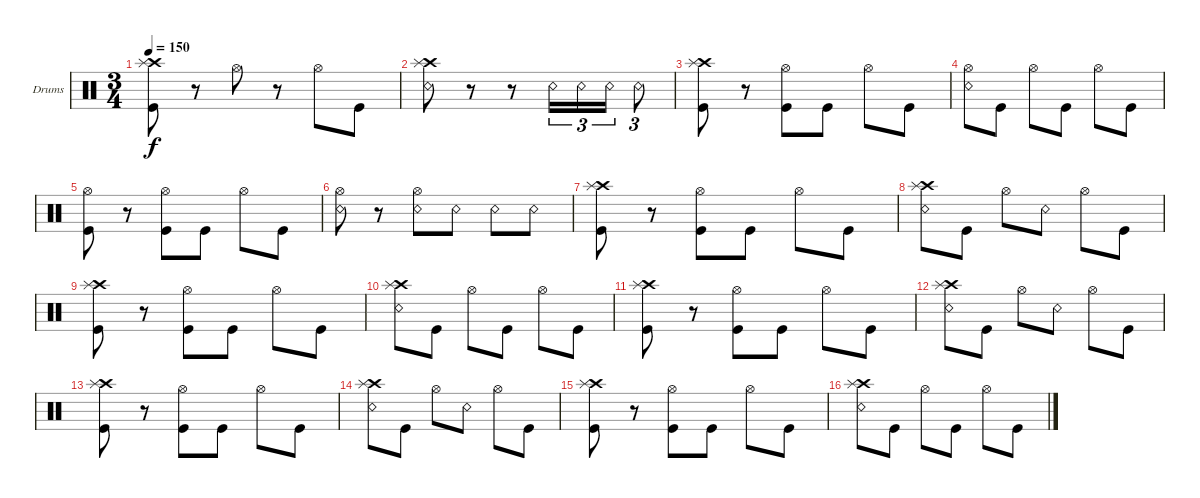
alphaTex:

\defaultSystemsLayout 4
\bracketExtendMode groupsimilarinstruments
\firstSystemTrackNameOrientation horizontal
\otherSystemsTrackNameOrientation horizontal
\track ("Scott" "Drums") {mute instrument percussion}
\staff {score}
\articulation defaults
\ts (3 4)
\tempo 150
\clef neutral
\scale
0.333333
\ks c
("Kick (hit)" "Crash high (hit)" "Splash (hit)").8{dy f} r.8 "Hi-Hat (open)".8 r.8 "Hi-Hat (open)".8 "Kick (hit)".8 |
\scale
0.333333 ("Snare (rim shot)" "Crash high (hit)" "Splash (hit)").8 r.8 r.8 "Snare (rim shot)".16{tu (3 2)} "Snare (rim shot)".16{tu (3 2)} "Snare (rim shot)".16{tu (3 2)} "Snare (rim shot)".8{tu (3 2)} |
\scale
0.333333 ("Kick (hit)" "Crash high (hit)" "Splash (hit)").8 r.8 ("Kick (hit)" "Hi-Hat (open)").8 "Kick (hit)".8 "Hi-Hat (open)".8 "Kick (hit)".8 |
\scale
0.333333 ("Snare (rim shot)" "Hi-Hat (open)").8 "Kick (hit)".8 "Hi-Hat (open)".8 "Kick (hit)".8 "Hi-Hat (open)".8 "Kick (hit)".8 |
\scale
0.333333 ("Kick (hit)" "Hi-Hat (open)").8 r.8 ("Kick (hit)" "Hi-Hat (open)").8 "Kick (hit)".8 "Hi-Hat (open)".8 "Kick (hit)".8 |
\scale
0.333333 ("Snare (rim shot)" "Hi-Hat (open)").8 r.8 ("Snare (rim shot)" "Hi-Hat (open)").8 "Snare (rim shot)".8 "Snare (rim shot)".8 "Snare (rim shot)".8 |
\scale
0.333333 ("Kick (hit)" "Crash high (hit)" "Splash (hit)").8 r.8 ("Kick (hit)" "Hi-Hat (open)").8 "Kick (hit)".8 "Hi-Hat (open)".8 "Kick (hit)".8 |
\scale
0.333333 ("Snare (rim shot)" "Crash high (hit)" "Splash (hit)").8 "Kick (hit)".8 "Hi-Hat (open)".8 "Snare (rim shot)".8 "Hi-Hat (open)".8 "Kick (hit)".8 |
\scale
0.333333 ("Kick (hit)" "Crash high (hit)" "Splash (hit)").8 r.8 ("Kick (hit)" "Hi-Hat (open)").8 "Kick (hit)".8 "Hi-Hat (open)".8 "Kick (hit)".8 |
\scale
0.333333 ("Snare (rim shot)" "Crash high (hit)" "Splash (hit)").8 "Kick (hit)".8 "Hi-Hat (open)".8 "Kick (hit)".8 "Hi-Hat (open)".8 "Kick (hit)".8 |
\scale
0.333333 ("Kick (hit)" "Crash high (hit)" "Splash (hit)").8 r.8 ("Kick (hit)" "Hi-Hat (open)").8 "Kick (hit)".8 "Hi-Hat (open)".8 "Kick (hit)".8 |
\scale
0.333333 ("Snare (rim shot)" "Crash high (hit)" "Splash (hit)").8 "Kick (hit)".8 "Hi-Hat (open)".8 "Snare (rim shot)".8 "Hi-Hat (open)".8 "Kick (hit)".8 |
\scale
0.333333 ("Kick (hit)" "Crash high (hit)" "Splash (hit)").8 r.8 ("Kick (hit)" "Hi-Hat (open)").8 "Kick (hit)".8 "Hi-Hat (open)".8 "Kick (hit)".8 |
\scale
0.333333 ("Snare (rim shot)" "Crash high (hit)" "Splash (hit)").8 "Kick (hit)".8 "Hi-Hat (open)".8 "Snare (rim shot)".8 "Hi-Hat (open)".8 "Kick (hit)".8 |
\scale
0.333333 ("Kick (hit)" "Crash high (hit)" "Splash (hit)").8 r.8 ("Kick (hit)" "Hi-Hat (open)").8 "Kick (hit)".8 "Hi-Hat (open)".8 "Kick (hit)".8 |
\scale
0.333333 ("Snare (rim shot)" "Crash high (hit)" "Splash (hit)").8 "Kick (hit)".8 "Hi-Hat (open)".8 "Kick (hit)".8 "Hi-Hat (open)".8 "Kick (hit)".8
